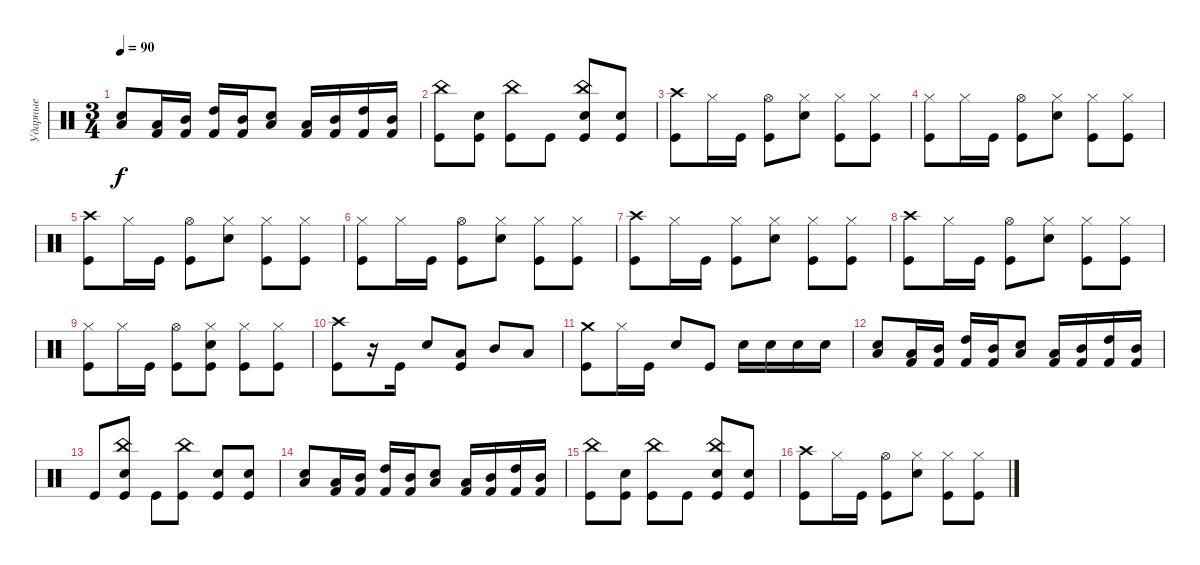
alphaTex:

\track ("Ударные" "Ударные") {instrument percussion}
\staff {score}
\articulation defaults
\ts (3 4)
\tempo 90
\clef neutral
\ks c
("Low Floor Tom (hit)" "Electric Snare (hit)").8{dy f} ("Low Tom (hit)" "Kick (hit) 2").16 ("Mid Tom (hit)" "Kick (hit) 2").16 ("High Tom (hit)" "Kick (hit) 2").16 ("Mid Tom (hit)" "Kick (hit) 2").16 ("Low Floor Tom (hit)" "Electric Snare (hit)").8 ("Low Tom (hit)" "Kick (hit) 2").16 ("Mid Tom (hit)" "Kick (hit) 2").16 ("High Tom (hit)" "Kick (hit) 2").16 ("Mid Tom (hit)" "Kick (hit) 2").16 |
("China (hit)" "Kick (hit)").8 ("Electric Snare (hit)" "Kick (hit)").8 ("China (hit)" "Kick (hit)").8 "Kick (hit)".8 ("China (hit)" "Electric Snare (hit)" "Kick (hit)").8 ("Electric Snare (hit)" "Kick (hit)").8 |
("Crash high (hit)" "Kick (hit)").8 "Hi-Hat (closed)".16 "Kick (hit)".16 ("Hi-Hat (open)" "Kick (hit)").8 ("Hi-Hat (closed)" "Electric Snare (hit)").8 ("Hi-Hat (closed)" "Kick (hit)").8 ("Hi-Hat (closed)" "Kick (hit)").8 |
("Hi-Hat (closed)" "Kick (hit)").8 "Hi-Hat (closed)".16 "Kick (hit)".16 ("Hi-Hat (open)" "Kick (hit)").8 ("Hi-Hat (closed)" "Electric Snare (hit)").8 ("Hi-Hat (closed)" "Kick (hit)").8 ("Hi-Hat (closed)" "Kick (hit)").8 |
("Crash high (hit)" "Kick (hit)").8 "Hi-Hat (closed)".16 "Kick (hit)".16 ("Hi-Hat (open)" "Kick (hit)").8 ("Hi-Hat (closed)" "Electric Snare (hit)").8 ("Hi-Hat (closed)" "Kick (hit)").8 ("Hi-Hat (closed)" "Kick (hit)").8 |
("Hi-Hat (closed)" "Kick (hit)").8 "Hi-Hat (closed)".16 "Kick (hit)".16 ("Hi-Hat (open)" "Kick (hit)").8 ("Hi-Hat (closed)" "Electric Snare (hit)").8 ("Hi-Hat (closed)" "Kick (hit)").8 ("Hi-Hat (closed)" "Kick (hit)").8 |
("Crash high (hit)" "Kick (hit)").8 "Hi-Hat (closed)".16 "Kick (hit)".16 ("Hi-Hat (closed)" "Kick (hit)").8 ("Hi-Hat (closed)" "Electric Snare (hit)").8 ("Hi-Hat (closed)" "Kick (hit)").8 ("Hi-Hat (closed)" "Kick (hit)").8 |
("Crash high (hit)" "Kick (hit)").8 "Hi-Hat (closed)".16 "Kick (hit)".16 ("Hi-Hat (open)" "Kick (hit)").8 ("Hi-Hat (closed)" "Electric Snare (hit)").8 ("Hi-Hat (closed)" "Kick (hit)").8 ("Hi-Hat (closed)" "Kick (hit)").8 |
("Hi-Hat (closed)" "Kick (hit)").8 "Hi-Hat (closed)".16 "Kick (hit)".16 ("Hi-Hat (open)" "Kick (hit)").8 ("Hi-Hat (closed)" "Electric Snare (hit)" "Kick (hit)").8 ("Hi-Hat (closed)" "Kick (hit)").8 ("Hi-Hat (closed)" "Kick (hit)").8 |
("Crash high (hit)" "Kick (hit)").8 r.16 "Kick (hit)".16 "Electric Snare (hit)".8 ("Low Tom (hit)" "Kick (hit)").8 "Mid Tom (hit)".8 "Low Tom (hit)".8 |
("Crash medium (hit)" "Kick (hit)").8 "Hi-Hat (closed)".16 "Kick (hit)".16 "Electric Snare (hit)".8 "Kick (hit)".8 "Electric Snare (hit)".16 "Electric Snare (hit)".16 "Electric Snare (hit)".16 "Electric Snare (hit)".16 |
("Low Floor Tom (hit)" "Electric Snare (hit)").8 ("Low Tom (hit)" "Kick (hit) 2").16 ("Mid Tom (hit)" "Kick (hit) 2").16 ("High Tom (hit)" "Kick (hit) 2").16 ("Mid Tom (hit)" "Kick (hit) 2").16 ("Low Floor Tom (hit)" "Electric Snare (hit)").8 ("Low Tom (hit)" "Kick (hit) 2").16 ("Mid Tom (hit)" "Kick (hit) 2").16 ("High Tom (hit)" "Kick (hit) 2").16 ("Mid Tom (hit)" "Kick (hit) 2").16 |
"Kick (hit)".8 ("China (hit)" "Electric Snare (hit)" "Kick (hit)").8 "Kick (hit)".8 ("China (hit)" "Kick (hit)").8 ("Electric Snare (hit)" "Kick (hit)").8 ("Electric Snare (hit)" "Kick (hit)").8 |
("Low Floor Tom (hit)" "Electric Snare (hit)").8 ("Low Tom (hit)" "Kick (hit) 2").16 ("Mid Tom (hit)" "Kick (hit) 2").16 ("High Tom (hit)" "Kick (hit) 2").16 ("Mid Tom (hit)" "Kick (hit) 2").16 ("Low Floor Tom (hit)" "Electric Snare (hit)").8 ("Low Tom (hit)" "Kick (hit) 2").16 ("Mid Tom (hit)" "Kick (hit) 2").16 ("High Tom (hit)" "Kick (hit) 2").16 ("Mid Tom (hit)" "Kick (hit) 2").16 |
("China (hit)" "Kick (hit)").8 ("Electric Snare (hit)" "Kick (hit)").8 ("China (hit)" "Kick (hit)").8 "Kick (hit)".8 ("China (hit)" "Electric Snare (hit)" "Kick (hit)").8 ("Electric Snare (hit)" "Kick (hit)").8 |
("Crash high (hit)" "Kick (hit)").8 "Hi-Hat (closed)".16 "Kick (hit)".16 ("Hi-Hat (open)" "Kick (hit)").8 ("Hi-Hat (closed)" "Electric Snare (hit)").8 ("Hi-Hat (closed)" "Kick (hit)").8 ("Hi-Hat (closed)" "Kick (hit)").8
